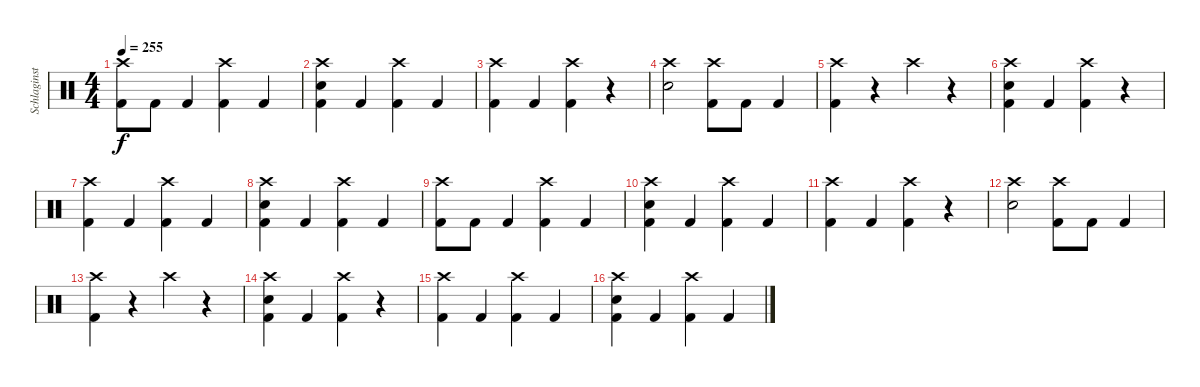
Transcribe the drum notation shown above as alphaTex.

\track ("Schlaginstrumente - Auswahl" "Schlaginst") {instrument percussion}
\staff {score}
\articulation defaults
\ts (4 4)
\tempo 255
\clef neutral
\ks c
("Crash high (hit)" "Kick (hit) 2").8{dy f} "Kick (hit) 2".8 "Kick (hit) 2".4 ("Crash high (hit)" "Kick (hit) 2").4 "Kick (hit) 2".4 |
("Crash high (hit)" "Electric Snare (hit)" "Kick (hit) 2").4 "Kick (hit) 2".4 ("Crash high (hit)" "Kick (hit) 2").4 "Kick (hit) 2".4 |
("Crash high (hit)" "Kick (hit) 2").4 "Kick (hit) 2".4 ("Crash high (hit)" "Kick (hit) 2").4 r.4 |
("Crash high (hit)" "Electric Snare (hit)").2 ("Crash high (hit)" "Kick (hit) 2").8 "Kick (hit) 2".8 "Kick (hit) 2".4 |
("Crash high (hit)" "Kick (hit) 2").4 r.4 "Crash high (hit)".4 r.4 |
("Crash high (hit)" "Electric Snare (hit)" "Kick (hit) 2").4 "Kick (hit) 2".4 ("Crash high (hit)" "Kick (hit) 2").4 r.4 |
("Crash high (hit)" "Kick (hit) 2").4 "Kick (hit) 2".4 ("Crash high (hit)" "Kick (hit) 2").4 "Kick (hit) 2".4 |
("Crash high (hit)" "Electric Snare (hit)" "Kick (hit) 2").4 "Kick (hit) 2".4 ("Crash high (hit)" "Kick (hit) 2").4 "Kick (hit) 2".4 |
("Crash high (hit)" "Kick (hit) 2").8 "Kick (hit) 2".8 "Kick (hit) 2".4 ("Crash high (hit)" "Kick (hit) 2").4 "Kick (hit) 2".4 |
("Crash high (hit)" "Electric Snare (hit)" "Kick (hit) 2").4 "Kick (hit) 2".4 ("Crash high (hit)" "Kick (hit) 2").4 "Kick (hit) 2".4 |
("Crash high (hit)" "Kick (hit) 2").4 "Kick (hit) 2".4 ("Crash high (hit)" "Kick (hit) 2").4 r.4 |
("Crash high (hit)" "Electric Snare (hit)").2 ("Crash high (hit)" "Kick (hit) 2").8 "Kick (hit) 2".8 "Kick (hit) 2".4 |
("Crash high (hit)" "Kick (hit) 2").4 r.4 "Crash high (hit)".4 r.4 |
("Crash high (hit)" "Electric Snare (hit)" "Kick (hit) 2").4 "Kick (hit) 2".4 ("Crash high (hit)" "Kick (hit) 2").4 r.4 |
("Crash high (hit)" "Kick (hit) 2").4 "Kick (hit) 2".4 ("Crash high (hit)" "Kick (hit) 2").4 "Kick (hit) 2".4 |
("Crash high (hit)" "Electric Snare (hit)" "Kick (hit) 2").4 "Kick (hit) 2".4 ("Crash high (hit)" "Kick (hit) 2").4 "Kick (hit) 2".4
